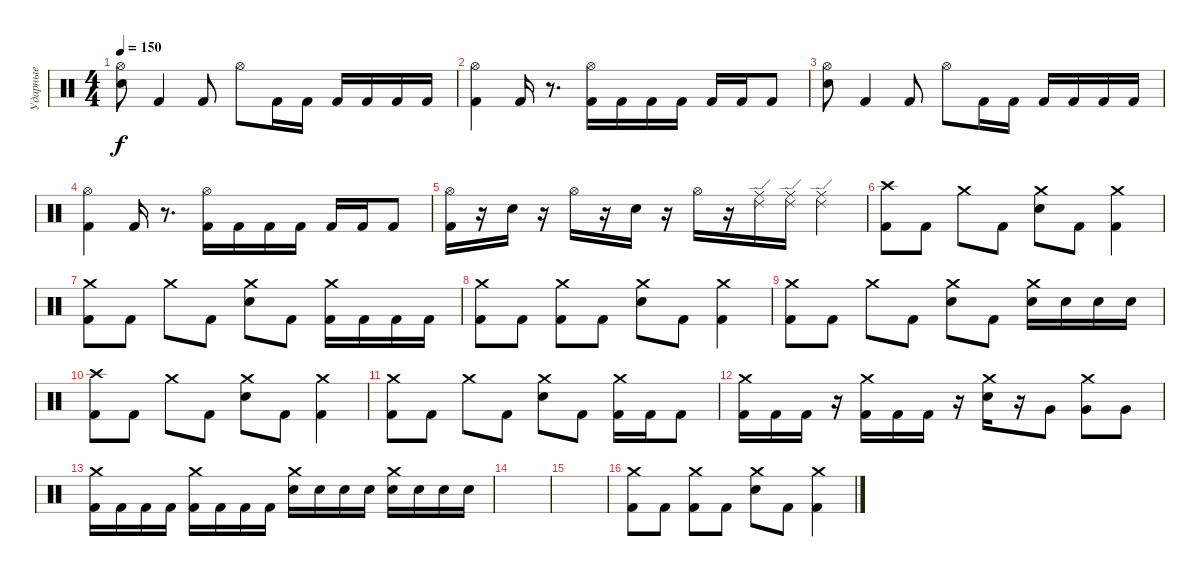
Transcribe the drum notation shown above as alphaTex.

\track ("Ударные" "Ударные") {instrument percussion}
\staff {score}
\articulation defaults
\ts (4 4)
\tempo 150
\clef neutral
\ks c
("Hi-Hat (open)" "Electric Snare (hit)").8{dy f} "Kick (hit) 2".4 "Kick (hit) 2".8 "Hi-Hat (open)".8 "Kick (hit) 2".16 "Kick (hit) 2".16 "Kick (hit) 2".16 "Kick (hit) 2".16 "Kick (hit) 2".16 "Kick (hit) 2".16 |
("Hi-Hat (open)" "Kick (hit) 2").4 "Kick (hit) 2".16 r.8{d} ("Hi-Hat (open)" "Kick (hit) 2").16 "Kick (hit) 2".16 "Kick (hit) 2".16 "Kick (hit) 2".16 "Kick (hit) 2".16 "Kick (hit) 2".16 "Kick (hit) 2".8 |
("Hi-Hat (open)" "Electric Snare (hit)").8 "Kick (hit) 2".4 "Kick (hit) 2".8 "Hi-Hat (open)".8 "Kick (hit) 2".16 "Kick (hit) 2".16 "Kick (hit) 2".16 "Kick (hit) 2".16 "Kick (hit) 2".16 "Kick (hit) 2".16 |
("Hi-Hat (open)" "Kick (hit) 2").4 "Kick (hit) 2".16 r.8{d} ("Hi-Hat (open)" "Kick (hit) 2").16 "Kick (hit) 2".16 "Kick (hit) 2".16 "Kick (hit) 2".16 "Kick (hit) 2".16 "Kick (hit) 2".16 "Kick (hit) 2".8 |
("Hi-Hat (open)" "Kick (hit) 2").16 r.16 "Electric Snare (hit)".16 r.16 "Hi-Hat (open)".16 r.16 "Electric Snare (hit)".16 r.16 "Hi-Hat (open)".16 r.16 ("Ride (edge) 2" "Ride (middle)").16 ("Ride (edge) 2" "Ride (middle)").16 ("Ride (edge) 2" "Ride (middle)").4 |
("Crash high (hit)" "Kick (hit) 2").8 "Kick (hit) 2".8 "Crash medium (hit)".8 "Kick (hit) 2".8 ("Crash medium (hit)" "Electric Snare (hit)").8 "Kick (hit) 2".8 ("Crash medium (hit)" "Kick (hit) 2").4 |
("Crash medium (hit)" "Kick (hit) 2").8 "Kick (hit) 2".8 "Crash medium (hit)".8 "Kick (hit) 2".8 ("Crash medium (hit)" "Electric Snare (hit)").8 "Kick (hit) 2".8 ("Crash medium (hit)" "Kick (hit) 2").16 "Kick (hit) 2".16 "Kick (hit) 2".16 "Kick (hit) 2".16 |
("Crash medium (hit)" "Kick (hit) 2").8 "Kick (hit) 2".8 ("Crash medium (hit)" "Kick (hit) 2").8 "Kick (hit) 2".8 ("Crash medium (hit)" "Electric Snare (hit)").8 "Kick (hit) 2".8 ("Crash medium (hit)" "Kick (hit) 2").4 |
("Crash medium (hit)" "Kick (hit) 2").8 "Kick (hit) 2".8 "Crash medium (hit)".8 "Kick (hit) 2".8 ("Crash medium (hit)" "Electric Snare (hit)").8 "Kick (hit) 2".8 ("Crash medium (hit)" "Electric Snare (hit)").16 "Electric Snare (hit)".16 "Electric Snare (hit)".16 "Electric Snare (hit)".16 |
("Crash high (hit)" "Kick (hit) 2").8 "Kick (hit) 2".8 "Crash medium (hit)".8 "Kick (hit) 2".8 ("Crash medium (hit)" "Electric Snare (hit)").8 "Kick (hit) 2".8 ("Crash medium (hit)" "Kick (hit) 2").4 |
("Crash medium (hit)" "Kick (hit) 2").8 "Kick (hit) 2".8 "Crash medium (hit)".8 "Kick (hit) 2".8 ("Crash medium (hit)" "Electric Snare (hit)").8 "Kick (hit) 2".8 ("Crash medium (hit)" "Kick (hit) 2").16 "Kick (hit) 2".16 "Kick (hit) 2".8 |
("Crash medium (hit)" "Kick (hit) 2").16 "Kick (hit) 2".16 "Kick (hit) 2".16 r.16 ("Crash medium (hit)" "Kick (hit) 2").16 "Kick (hit) 2".16 "Kick (hit) 2".16 r.16 ("Crash medium (hit)" "Electric Snare (hit)").16 r.16 "Very Low Tom (hit)".8 ("Crash medium (hit)" "Very Low Tom (hit)").8 "Very Low Tom (hit)".8 |
("Crash medium (hit)" "Kick (hit) 2").16 "Kick (hit) 2".16 "Kick (hit) 2".16 "Kick (hit) 2".16 ("Crash medium (hit)" "Kick (hit) 2").16 "Kick (hit) 2".16 "Kick (hit) 2".16 "Kick (hit) 2".16 ("Crash medium (hit)" "Electric Snare (hit)").16 "Electric Snare (hit)".16 "Electric Snare (hit)".16 "Electric Snare (hit)".16 ("Crash medium (hit)" "Electric Snare (hit)").16 "Electric Snare (hit)".16 "Electric Snare (hit)".16 "Electric Snare (hit)".16 |
|
|
("Crash medium (hit)" "Kick (hit) 2").8 "Kick (hit) 2".8 ("Crash medium (hit)" "Kick (hit) 2").8 "Kick (hit) 2".8 ("Crash medium (hit)" "Electric Snare (hit)").8 "Kick (hit) 2".8 ("Crash medium (hit)" "Kick (hit) 2").4
